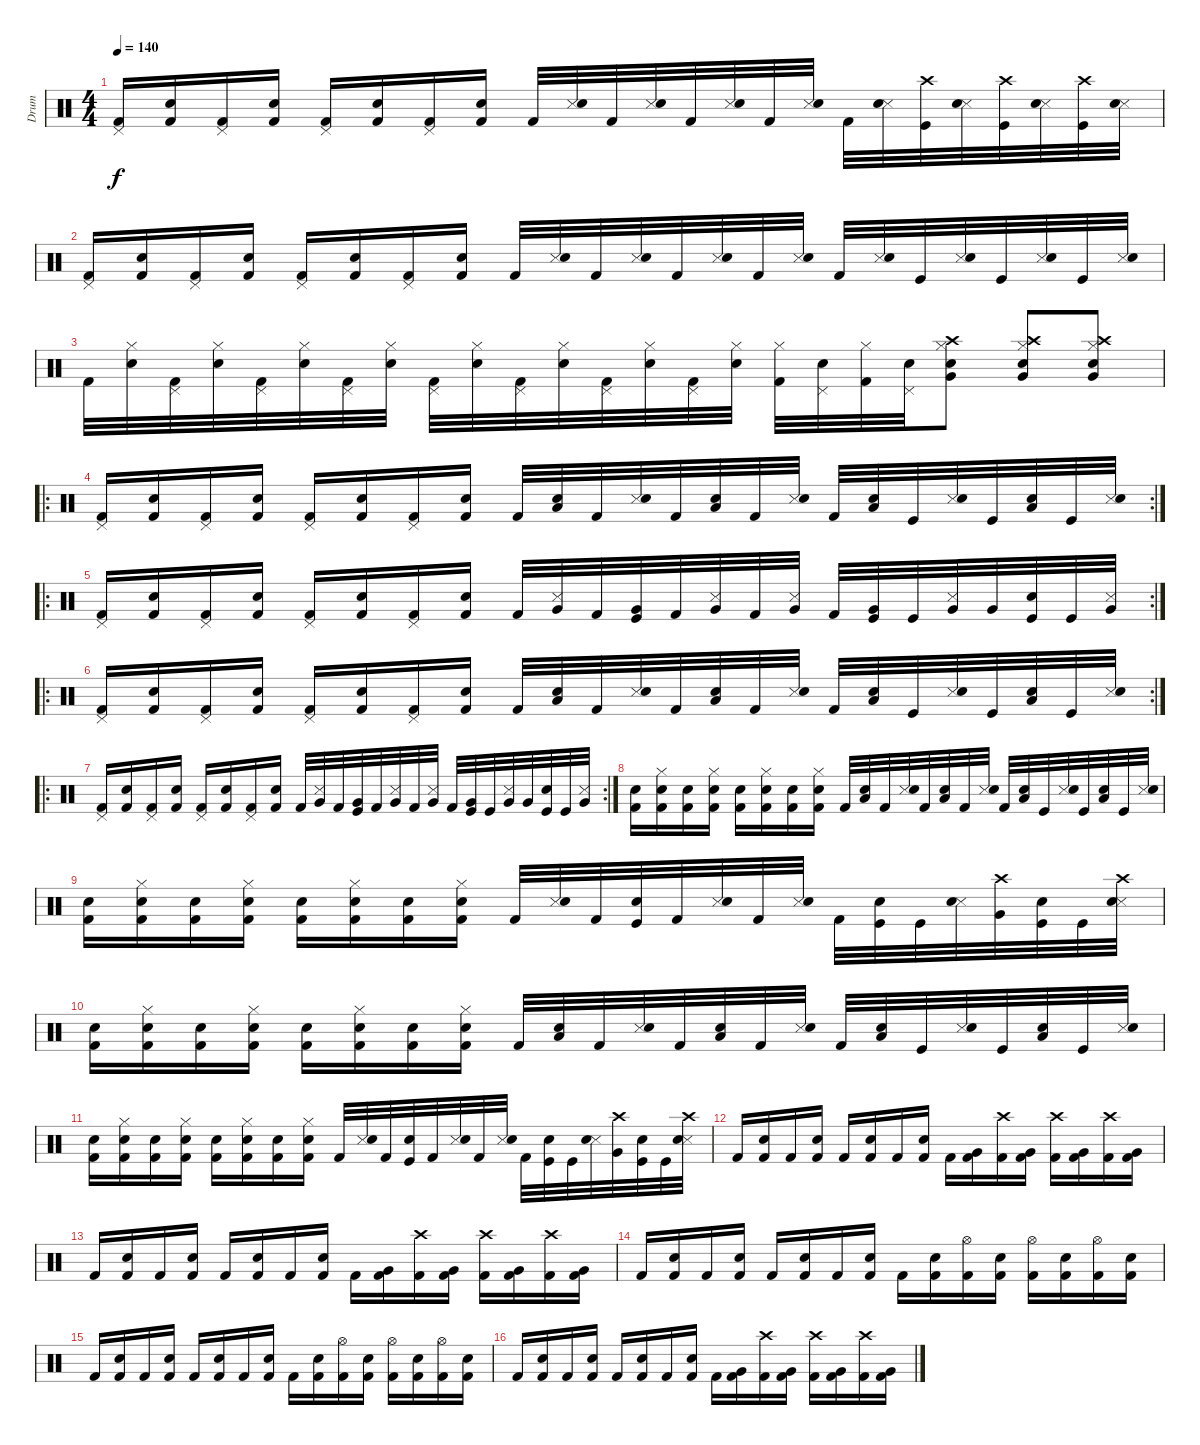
\track ("Drum" "Drum") {instrument percussion}
\staff {score}
\articulation defaults
\ts (4 4)
\tempo 140
\clef neutral
\ks c
("Pedal Hi-Hat (hit)" "Kick (hit) 2").16{dy f} ("Electric Snare (hit)" "Kick (hit) 2").16 ("Pedal Hi-Hat (hit)" "Kick (hit) 2").16 ("Electric Snare (hit)" "Kick (hit) 2").16 ("Pedal Hi-Hat (hit)" "Kick (hit) 2").16 ("Electric Snare (hit)" "Kick (hit) 2").16 ("Pedal Hi-Hat (hit)" "Kick (hit) 2").16 ("Electric Snare (hit)" "Kick (hit) 2").16 "Kick (hit) 2".32 ("Metronome (hit)" "Electric Snare (hit)").32 "Kick (hit) 2".32 ("Metronome (hit)" "Electric Snare (hit)").32 "Kick (hit) 2".32 ("Metronome (hit)" "Electric Snare (hit)").32 "Kick (hit) 2".32 ("Metronome (hit)" "Electric Snare (hit)").32 "Kick (hit) 2".32 ("Metronome (hit)" "Electric Snare (hit)").32 ("Crash high (hit)" "Kick (hit)").32 ("Metronome (hit)" "Electric Snare (hit)").32 ("Crash high (hit)" "Kick (hit)").32 ("Metronome (hit)" "Electric Snare (hit)").32 ("Crash high (hit)" "Kick (hit)").32 ("Metronome (hit)" "Electric Snare (hit)").32 |
("Pedal Hi-Hat (hit)" "Kick (hit) 2").16 ("Electric Snare (hit)" "Kick (hit) 2").16 ("Pedal Hi-Hat (hit)" "Kick (hit) 2").16 ("Electric Snare (hit)" "Kick (hit) 2").16 ("Pedal Hi-Hat (hit)" "Kick (hit) 2").16 ("Electric Snare (hit)" "Kick (hit) 2").16 ("Pedal Hi-Hat (hit)" "Kick (hit) 2").16 ("Electric Snare (hit)" "Kick (hit) 2").16 "Kick (hit) 2".32 ("Metronome (hit)" "Electric Snare (hit)").32 "Kick (hit) 2".32 ("Metronome (hit)" "Electric Snare (hit)").32 "Kick (hit) 2".32 ("Metronome (hit)" "Electric Snare (hit)").32 "Kick (hit) 2".32 ("Metronome (hit)" "Electric Snare (hit)").32 "Kick (hit) 2".32 ("Metronome (hit)" "Electric Snare (hit)").32 "Kick (hit)".32 ("Metronome (hit)" "Electric Snare (hit)").32 "Kick (hit)".32 ("Metronome (hit)" "Electric Snare (hit)").32 "Kick (hit)".32 ("Metronome (hit)" "Electric Snare (hit)").32 |
"Kick (hit) 2".32 ("Hi-Hat (closed)" "Electric Snare (hit)").32 ("Pedal Hi-Hat (hit)" "Kick (hit) 2").32 ("Hi-Hat (closed)" "Electric Snare (hit)").32 ("Pedal Hi-Hat (hit)" "Kick (hit) 2").32 ("Hi-Hat (closed)" "Electric Snare (hit)").32 ("Pedal Hi-Hat (hit)" "Kick (hit) 2").32 ("Hi-Hat (closed)" "Electric Snare (hit)").32 ("Pedal Hi-Hat (hit)" "Kick (hit) 2").32 ("Hi-Hat (closed)" "Electric Snare (hit)").32 ("Pedal Hi-Hat (hit)" "Kick (hit) 2").32 ("Hi-Hat (closed)" "Electric Snare (hit)").32 ("Pedal Hi-Hat (hit)" "Kick (hit) 2").32 ("Hi-Hat (closed)" "Electric Snare (hit)").32 ("Pedal Hi-Hat (hit)" "Kick (hit) 2").32 ("Hi-Hat (closed)" "Electric Snare (hit)").32 ("Hi-Hat (closed)" "Kick (hit) 2").32 ("Pedal Hi-Hat (hit)" "Electric Snare (hit)").32 ("Hi-Hat (closed)" "Kick (hit) 2").32 ("Pedal Hi-Hat (hit)" "Electric Snare (hit)").32 ("Crash high (hit)" "Hi-Hat (closed)" "Very Low Tom (hit)" "Electric Snare (hit)").8 ("Crash high (hit)" "Hi-Hat (closed)" "Very Low Tom (hit)" "Electric Snare (hit)").8 ("Crash high (hit)" "Hi-Hat (closed)" "Very Low Tom (hit)" "Electric Snare (hit)").8 |
\ro
\rc 2
("Pedal Hi-Hat (hit)" "Kick (hit) 2").16 ("Electric Snare (hit)" "Kick (hit) 2").16 ("Pedal Hi-Hat (hit)" "Kick (hit) 2").16 ("Electric Snare (hit)" "Kick (hit) 2").16 ("Pedal Hi-Hat (hit)" "Kick (hit) 2").16 ("Electric Snare (hit)" "Kick (hit) 2").16 ("Pedal Hi-Hat (hit)" "Kick (hit) 2").16 ("Electric Snare (hit)" "Kick (hit) 2").16 "Kick (hit) 2".32 ("Low Tom (hit)" "Electric Snare (hit)").32 "Kick (hit) 2".32 ("Metronome (hit)" "Electric Snare (hit)").32 "Kick (hit) 2".32 ("Low Tom (hit)" "Electric Snare (hit)").32 "Kick (hit) 2".32 ("Metronome (hit)" "Electric Snare (hit)").32 "Kick (hit) 2".32 ("Low Tom (hit)" "Electric Snare (hit)").32 "Kick (hit)".32 ("Metronome (hit)" "Electric Snare (hit)").32 "Kick (hit)".32 ("Low Tom (hit)" "Electric Snare (hit)").32 "Kick (hit)".32 ("Metronome (hit)" "Electric Snare (hit)").32 |
\ro
\rc 2
("Pedal Hi-Hat (hit)" "Kick (hit) 2").16 ("Electric Snare (hit)" "Kick (hit) 2").16 ("Pedal Hi-Hat (hit)" "Kick (hit) 2").16 ("Electric Snare (hit)" "Kick (hit) 2").16 ("Pedal Hi-Hat (hit)" "Kick (hit) 2").16 ("Electric Snare (hit)" "Kick (hit) 2").16 ("Pedal Hi-Hat (hit)" "Kick (hit) 2").16 ("Electric Snare (hit)" "Kick (hit) 2").16 "Kick (hit) 2".32 ("Metronome (hit)" "Very Low Tom (hit)").32 "Kick (hit) 2".32 ("Kick (hit)" "Very Low Tom (hit)").32 "Kick (hit) 2".32 ("Metronome (hit)" "Very Low Tom (hit)").32 "Kick (hit) 2".32 ("Metronome (hit)" "Very Low Tom (hit)").32 "Kick (hit) 2".32 ("Kick (hit)" "Very Low Tom (hit)").32 "Kick (hit)".32 ("Metronome (hit)" "Very Low Tom (hit)").32 "Very Low Tom (hit)".32 ("Kick (hit)" "Electric Snare (hit)").32 "Kick (hit)".32 ("Metronome (hit)" "Very Low Tom (hit)").32 |
\ro
\rc 2
("Pedal Hi-Hat (hit)" "Kick (hit) 2").16 ("Electric Snare (hit)" "Kick (hit) 2").16 ("Pedal Hi-Hat (hit)" "Kick (hit) 2").16 ("Electric Snare (hit)" "Kick (hit) 2").16 ("Pedal Hi-Hat (hit)" "Kick (hit) 2").16 ("Electric Snare (hit)" "Kick (hit) 2").16 ("Pedal Hi-Hat (hit)" "Kick (hit) 2").16 ("Electric Snare (hit)" "Kick (hit) 2").16 "Kick (hit) 2".32 ("Low Tom (hit)" "Electric Snare (hit)").32 "Kick (hit) 2".32 ("Metronome (hit)" "Electric Snare (hit)").32 "Kick (hit) 2".32 ("Low Tom (hit)" "Electric Snare (hit)").32 "Kick (hit) 2".32 ("Metronome (hit)" "Electric Snare (hit)").32 "Kick (hit) 2".32 ("Low Tom (hit)" "Electric Snare (hit)").32 "Kick (hit)".32 ("Metronome (hit)" "Electric Snare (hit)").32 "Kick (hit)".32 ("Low Tom (hit)" "Electric Snare (hit)").32 "Kick (hit)".32 ("Metronome (hit)" "Electric Snare (hit)").32 |
\ro
\rc 2
("Pedal Hi-Hat (hit)" "Kick (hit) 2").16 ("Electric Snare (hit)" "Kick (hit) 2").16 ("Pedal Hi-Hat (hit)" "Kick (hit) 2").16 ("Electric Snare (hit)" "Kick (hit) 2").16 ("Pedal Hi-Hat (hit)" "Kick (hit) 2").16 ("Electric Snare (hit)" "Kick (hit) 2").16 ("Pedal Hi-Hat (hit)" "Kick (hit) 2").16 ("Electric Snare (hit)" "Kick (hit) 2").16 "Kick (hit) 2".32 ("Metronome (hit)" "Very Low Tom (hit)").32 "Kick (hit) 2".32 ("Kick (hit)" "Very Low Tom (hit)").32 "Kick (hit) 2".32 ("Metronome (hit)" "Very Low Tom (hit)").32 "Kick (hit) 2".32 ("Metronome (hit)" "Very Low Tom (hit)").32 "Kick (hit) 2".32 ("Kick (hit)" "Very Low Tom (hit)").32 "Kick (hit)".32 ("Metronome (hit)" "Very Low Tom (hit)").32 "Very Low Tom (hit)".32 ("Kick (hit)" "Electric Snare (hit)").32 "Kick (hit)".32 ("Metronome (hit)" "Very Low Tom (hit)").32 |
("Snare (hit) 2" "Kick (hit) 2").16 ("Hi-Hat (closed)" "Electric Snare (hit)" "Kick (hit) 2").16 ("Snare (hit) 2" "Kick (hit) 2").16 ("Hi-Hat (closed)" "Electric Snare (hit)" "Kick (hit) 2").16 ("Snare (hit) 2" "Kick (hit) 2").16 ("Hi-Hat (closed)" "Electric Snare (hit)" "Kick (hit) 2").16 ("Snare (hit) 2" "Kick (hit) 2").16 ("Hi-Hat (closed)" "Electric Snare (hit)" "Kick (hit) 2").16 "Kick (hit) 2".32 ("Low Tom (hit)" "Electric Snare (hit)").32 "Kick (hit) 2".32 ("Metronome (hit)" "Electric Snare (hit)").32 "Kick (hit) 2".32 ("Low Tom (hit)" "Electric Snare (hit)").32 "Kick (hit) 2".32 ("Metronome (hit)" "Electric Snare (hit)").32 "Kick (hit) 2".32 ("Low Tom (hit)" "Electric Snare (hit)").32 "Kick (hit)".32 ("Metronome (hit)" "Electric Snare (hit)").32 "Kick (hit)".32 ("Low Tom (hit)" "Electric Snare (hit)").32 "Kick (hit)".32 ("Metronome (hit)" "Electric Snare (hit)").32 |
("Snare (hit) 2" "Kick (hit) 2").16 ("Hi-Hat (closed)" "Electric Snare (hit)" "Kick (hit) 2").16 ("Snare (hit) 2" "Kick (hit) 2").16 ("Hi-Hat (closed)" "Electric Snare (hit)" "Kick (hit) 2").16 ("Snare (hit) 2" "Kick (hit) 2").16 ("Hi-Hat (closed)" "Electric Snare (hit)" "Kick (hit) 2").16 ("Snare (hit) 2" "Kick (hit) 2").16 ("Hi-Hat (closed)" "Electric Snare (hit)" "Kick (hit) 2").16 "Kick (hit) 2".32 ("Metronome (hit)" "Snare (hit) 2").32 "Kick (hit) 2".32 ("Kick (hit)" "Snare (hit) 2").32 "Kick (hit) 2".32 ("Metronome (hit)" "Snare (hit) 2").32 "Kick (hit) 2".32 ("Metronome (hit)" "Snare (hit) 2").32 "Kick (hit) 2".32 ("Kick (hit)" "Snare (hit) 2").32 "Kick (hit)".32 ("Metronome (hit)" "Snare (hit) 2").32 ("Crash high (hit)" "Very Low Tom (hit)").32 ("Kick (hit)" "Snare (hit) 2").32 "Kick (hit)".32 ("Crash high (hit)" "Metronome (hit)" "Snare (hit) 2").32 |
("Snare (hit) 2" "Kick (hit) 2").16 ("Hi-Hat (closed)" "Electric Snare (hit)" "Kick (hit) 2").16 ("Snare (hit) 2" "Kick (hit) 2").16 ("Hi-Hat (closed)" "Electric Snare (hit)" "Kick (hit) 2").16 ("Snare (hit) 2" "Kick (hit) 2").16 ("Hi-Hat (closed)" "Electric Snare (hit)" "Kick (hit) 2").16 ("Snare (hit) 2" "Kick (hit) 2").16 ("Hi-Hat (closed)" "Electric Snare (hit)" "Kick (hit) 2").16 "Kick (hit) 2".32 ("Low Tom (hit)" "Electric Snare (hit)").32 "Kick (hit) 2".32 ("Metronome (hit)" "Electric Snare (hit)").32 "Kick (hit) 2".32 ("Low Tom (hit)" "Electric Snare (hit)").32 "Kick (hit) 2".32 ("Metronome (hit)" "Electric Snare (hit)").32 "Kick (hit) 2".32 ("Low Tom (hit)" "Electric Snare (hit)").32 "Kick (hit)".32 ("Metronome (hit)" "Electric Snare (hit)").32 "Kick (hit)".32 ("Low Tom (hit)" "Electric Snare (hit)").32 "Kick (hit)".32 ("Metronome (hit)" "Electric Snare (hit)").32 |
("Snare (hit) 2" "Kick (hit) 2").16 ("Hi-Hat (closed)" "Electric Snare (hit)" "Kick (hit) 2").16 ("Snare (hit) 2" "Kick (hit) 2").16 ("Hi-Hat (closed)" "Electric Snare (hit)" "Kick (hit) 2").16 ("Snare (hit) 2" "Kick (hit) 2").16 ("Hi-Hat (closed)" "Electric Snare (hit)" "Kick (hit) 2").16 ("Snare (hit) 2" "Kick (hit) 2").16 ("Hi-Hat (closed)" "Electric Snare (hit)" "Kick (hit) 2").16 "Kick (hit) 2".32 ("Metronome (hit)" "Snare (hit) 2").32 "Kick (hit) 2".32 ("Kick (hit)" "Snare (hit) 2").32 "Kick (hit) 2".32 ("Metronome (hit)" "Snare (hit) 2").32 "Kick (hit) 2".32 ("Metronome (hit)" "Snare (hit) 2").32 "Kick (hit) 2".32 ("Kick (hit)" "Snare (hit) 2").32 "Kick (hit)".32 ("Metronome (hit)" "Snare (hit) 2").32 ("Crash high (hit)" "Very Low Tom (hit)").32 ("Kick (hit)" "Snare (hit) 2").32 "Kick (hit)".32 ("Crash high (hit)" "Metronome (hit)" "Snare (hit) 2").32 |
"Kick (hit) 2".16 ("Electric Snare (hit)" "Kick (hit) 2").16 "Kick (hit) 2".16 ("Electric Snare (hit)" "Kick (hit) 2").16 "Kick (hit) 2".16 ("Electric Snare (hit)" "Kick (hit) 2").16 "Kick (hit) 2".16 ("Electric Snare (hit)" "Kick (hit) 2").16 "Kick (hit) 2".16 ("Very Low Tom (hit)" "Kick (hit) 2").16 ("Crash high (hit)" "Kick (hit) 2").16 ("Very Low Tom (hit)" "Kick (hit) 2").16 ("Crash high (hit)" "Kick (hit) 2").16 ("Very Low Tom (hit)" "Kick (hit) 2").16 ("Crash high (hit)" "Kick (hit) 2").16 ("Very Low Tom (hit)" "Kick (hit) 2").16 |
"Kick (hit) 2".16 ("Electric Snare (hit)" "Kick (hit) 2").16 "Kick (hit) 2".16 ("Electric Snare (hit)" "Kick (hit) 2").16 "Kick (hit) 2".16 ("Electric Snare (hit)" "Kick (hit) 2").16 "Kick (hit) 2".16 ("Electric Snare (hit)" "Kick (hit) 2").16 "Kick (hit) 2".16 ("Very Low Tom (hit)" "Kick (hit) 2").16 ("Crash high (hit)" "Kick (hit) 2").16 ("Very Low Tom (hit)" "Kick (hit) 2").16 ("Crash high (hit)" "Kick (hit) 2").16 ("Very Low Tom (hit)" "Kick (hit) 2").16 ("Crash high (hit)" "Kick (hit) 2").16 ("Very Low Tom (hit)" "Kick (hit) 2").16 |
"Kick (hit) 2".16 ("Electric Snare (hit)" "Kick (hit) 2").16 "Kick (hit) 2".16 ("Electric Snare (hit)" "Kick (hit) 2").16 "Kick (hit) 2".16 ("Electric Snare (hit)" "Kick (hit) 2").16 "Kick (hit) 2".16 ("Electric Snare (hit)" "Kick (hit) 2").16 "Kick (hit) 2".16 ("Snare (hit) 2" "Kick (hit) 2").16 ("Hi-Hat (open)" "Kick (hit) 2").16 ("Snare (hit) 2" "Kick (hit) 2").16 ("Hi-Hat (open)" "Kick (hit) 2").16 ("Snare (hit) 2" "Kick (hit) 2").16 ("Hi-Hat (open)" "Kick (hit) 2").16 ("Snare (hit) 2" "Kick (hit) 2").16 |
"Kick (hit) 2".16 ("Electric Snare (hit)" "Kick (hit) 2").16 "Kick (hit) 2".16 ("Electric Snare (hit)" "Kick (hit) 2").16 "Kick (hit) 2".16 ("Electric Snare (hit)" "Kick (hit) 2").16 "Kick (hit) 2".16 ("Electric Snare (hit)" "Kick (hit) 2").16 "Kick (hit) 2".16 ("Snare (hit) 2" "Kick (hit) 2").16 ("Hi-Hat (open)" "Kick (hit) 2").16 ("Snare (hit) 2" "Kick (hit) 2").16 ("Hi-Hat (open)" "Kick (hit) 2").16 ("Snare (hit) 2" "Kick (hit) 2").16 ("Hi-Hat (open)" "Kick (hit) 2").16 ("Snare (hit) 2" "Kick (hit) 2").16 |
"Kick (hit) 2".16 ("Electric Snare (hit)" "Kick (hit) 2").16 "Kick (hit) 2".16 ("Electric Snare (hit)" "Kick (hit) 2").16 "Kick (hit) 2".16 ("Electric Snare (hit)" "Kick (hit) 2").16 "Kick (hit) 2".16 ("Electric Snare (hit)" "Kick (hit) 2").16 "Kick (hit) 2".16 ("Very Low Tom (hit)" "Kick (hit) 2").16 ("Crash high (hit)" "Kick (hit) 2").16 ("Very Low Tom (hit)" "Kick (hit) 2").16 ("Crash high (hit)" "Kick (hit) 2").16 ("Very Low Tom (hit)" "Kick (hit) 2").16 ("Crash high (hit)" "Kick (hit) 2").16 ("Very Low Tom (hit)" "Kick (hit) 2").16
